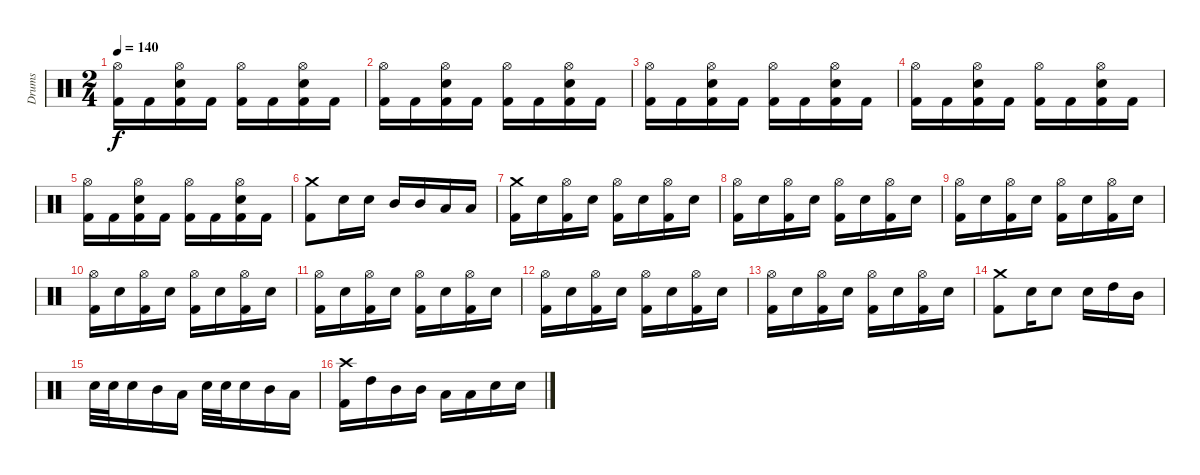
\track ("Drums" "Drums") {instrument percussion}
\staff {score}
\articulation defaults
\ts (2 4)
\tempo 140
\clef neutral
\ks c
("Kick (hit) 2" "Hi-Hat (open)").16{dy f} "Kick (hit) 2".16 ("Kick (hit) 2" "Electric Snare (hit)" "Hi-Hat (open)").16 "Kick (hit) 2".16 ("Kick (hit) 2" "Hi-Hat (open)").16 "Kick (hit) 2".16 ("Kick (hit) 2" "Electric Snare (hit)" "Hi-Hat (open)").16 "Kick (hit) 2".16 |
("Kick (hit) 2" "Hi-Hat (open)").16 "Kick (hit) 2".16 ("Kick (hit) 2" "Electric Snare (hit)" "Hi-Hat (open)").16 "Kick (hit) 2".16 ("Kick (hit) 2" "Hi-Hat (open)").16 "Kick (hit) 2".16 ("Kick (hit) 2" "Electric Snare (hit)" "Hi-Hat (open)").16 "Kick (hit) 2".16 |
("Kick (hit) 2" "Hi-Hat (open)").16 "Kick (hit) 2".16 ("Kick (hit) 2" "Electric Snare (hit)" "Hi-Hat (open)").16 "Kick (hit) 2".16 ("Kick (hit) 2" "Hi-Hat (open)").16 "Kick (hit) 2".16 ("Kick (hit) 2" "Electric Snare (hit)" "Hi-Hat (open)").16 "Kick (hit) 2".16 |
("Kick (hit) 2" "Hi-Hat (open)").16 "Kick (hit) 2".16 ("Kick (hit) 2" "Electric Snare (hit)" "Hi-Hat (open)").16 "Kick (hit) 2".16 ("Kick (hit) 2" "Hi-Hat (open)").16 "Kick (hit) 2".16 ("Kick (hit) 2" "Electric Snare (hit)" "Hi-Hat (open)").16 "Kick (hit) 2".16 |
("Kick (hit) 2" "Hi-Hat (open)").16 "Kick (hit) 2".16 ("Kick (hit) 2" "Electric Snare (hit)" "Hi-Hat (open)").16 "Kick (hit) 2".16 ("Kick (hit) 2" "Hi-Hat (open)").16 "Kick (hit) 2".16 ("Kick (hit) 2" "Electric Snare (hit)" "Hi-Hat (open)").16 "Kick (hit) 2".16 |
("Kick (hit) 2" "Crash medium (hit)").8 "Electric Snare (hit)".16 "Electric Snare (hit)".16 "Mid Tom (hit)".16 "Mid Tom (hit)".16 "Low Tom (hit)".16 "Low Tom (hit)".16 |
("Kick (hit) 2" "Crash medium (hit)").16 "Electric Snare (hit)".16 ("Kick (hit) 2" "Hi-Hat (open)").16 "Electric Snare (hit)".16 ("Kick (hit) 2" "Hi-Hat (open)").16 "Electric Snare (hit)".16 ("Kick (hit) 2" "Hi-Hat (open)").16 "Electric Snare (hit)".16 |
("Kick (hit) 2" "Hi-Hat (open)").16 "Electric Snare (hit)".16 ("Kick (hit) 2" "Hi-Hat (open)").16 "Electric Snare (hit)".16 ("Kick (hit) 2" "Hi-Hat (open)").16 "Electric Snare (hit)".16 ("Kick (hit) 2" "Hi-Hat (open)").16 "Electric Snare (hit)".16 |
("Kick (hit) 2" "Hi-Hat (open)").16 "Electric Snare (hit)".16 ("Kick (hit) 2" "Hi-Hat (open)").16 "Electric Snare (hit)".16 ("Kick (hit) 2" "Hi-Hat (open)").16 "Electric Snare (hit)".16 ("Kick (hit) 2" "Hi-Hat (open)").16 "Electric Snare (hit)".16 |
("Kick (hit) 2" "Hi-Hat (open)").16 "Electric Snare (hit)".16 ("Kick (hit) 2" "Hi-Hat (open)").16 "Electric Snare (hit)".16 ("Kick (hit) 2" "Hi-Hat (open)").16 "Electric Snare (hit)".16 ("Kick (hit) 2" "Hi-Hat (open)").16 "Electric Snare (hit)".16 |
("Kick (hit) 2" "Hi-Hat (open)").16 "Electric Snare (hit)".16 ("Kick (hit) 2" "Hi-Hat (open)").16 "Electric Snare (hit)".16 ("Kick (hit) 2" "Hi-Hat (open)").16 "Electric Snare (hit)".16 ("Kick (hit) 2" "Hi-Hat (open)").16 "Electric Snare (hit)".16 |
("Kick (hit) 2" "Hi-Hat (open)").16 "Electric Snare (hit)".16 ("Kick (hit) 2" "Hi-Hat (open)").16 "Electric Snare (hit)".16 ("Kick (hit) 2" "Hi-Hat (open)").16 "Electric Snare (hit)".16 ("Kick (hit) 2" "Hi-Hat (open)").16 "Electric Snare (hit)".16 |
("Kick (hit) 2" "Hi-Hat (open)").16 "Electric Snare (hit)".16 ("Kick (hit) 2" "Hi-Hat (open)").16 "Electric Snare (hit)".16 ("Kick (hit) 2" "Hi-Hat (open)").16 "Electric Snare (hit)".16 ("Kick (hit) 2" "Hi-Hat (open)").16 "Electric Snare (hit)".16 |
("Kick (hit) 2" "Crash medium (hit)").8 "Electric Snare (hit)".16 "Electric Snare (hit)".8 "Electric Snare (hit)".16 "High Tom (hit)".16 "Mid Tom (hit)".16 |
"Electric Snare (hit)".32 "Electric Snare (hit)".32 "Electric Snare (hit)".16 "Mid Tom (hit)".16 "Low Tom (hit)".16 "Electric Snare (hit)".32 "Electric Snare (hit)".32 "Electric Snare (hit)".16 "Mid Tom (hit)".16 "Low Tom (hit)".16 |
("Kick (hit) 2" "Crash high (hit)").16 "High Tom (hit)".16 "Mid Tom (hit)".16 "Mid Tom (hit)".16 "Low Tom (hit)".16 "Low Tom (hit)".16 "Electric Snare (hit)".16 "Electric Snare (hit)".16
